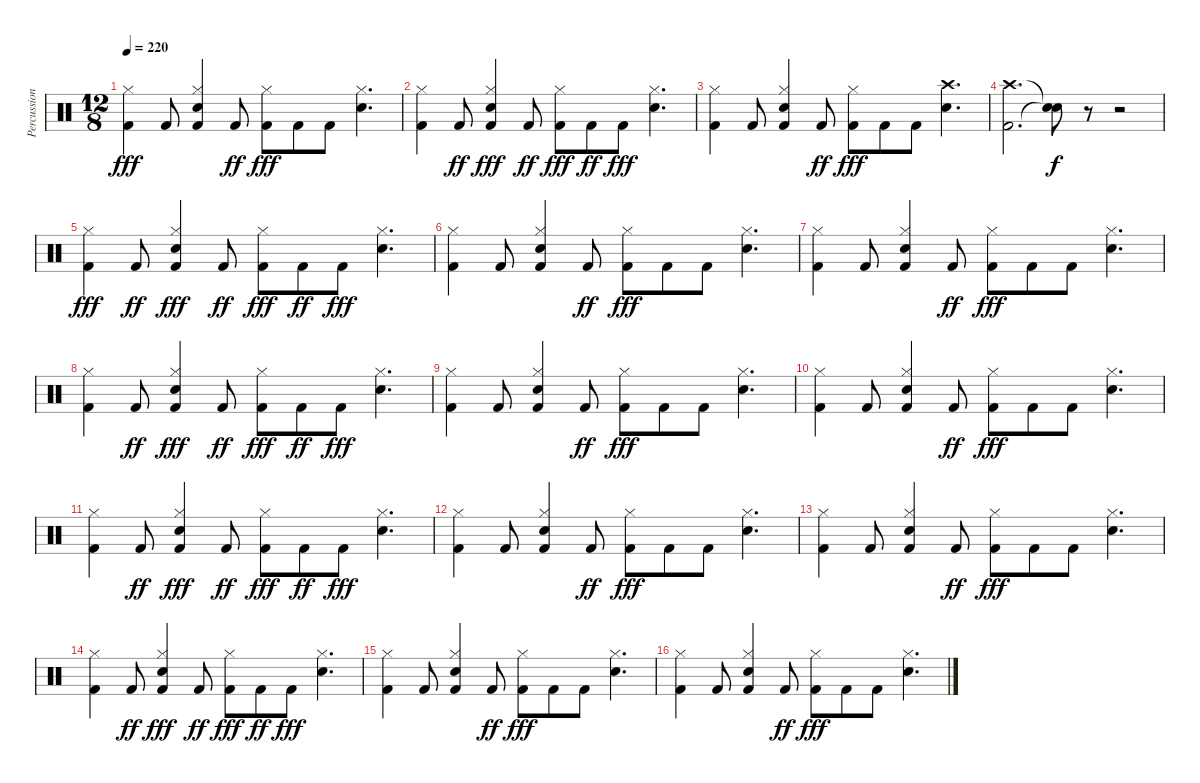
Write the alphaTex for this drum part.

\track ("Percussion" "Percussion") {instrument percussion}
\staff {score}
\articulation defaults
\ts (12 8)
\tempo 220
\clef neutral
\ks c
("Kick (hit) 2" "Hi-Hat (closed)").4{dy fff} "Kick (hit) 2".8 ("Kick (hit) 2" "Snare (hit) 2" "Hi-Hat (closed)").4 "Kick (hit) 2".8{dy ff} ("Kick (hit) 2" "Hi-Hat (closed)").8{dy fff} "Kick (hit) 2".8 "Kick (hit) 2".8 ("Snare (hit) 2" "Hi-Hat (closed)").4{d} |
("Kick (hit) 2" "Hi-Hat (closed)").4 "Kick (hit) 2".8{dy ff} ("Kick (hit) 2" "Snare (hit) 2" "Hi-Hat (closed)").4{dy fff} "Kick (hit) 2".8{dy ff} ("Kick (hit) 2" "Hi-Hat (closed)").8{dy fff} "Kick (hit) 2".8{dy ff} "Kick (hit) 2".8{dy fff} ("Snare (hit) 2" "Hi-Hat (closed)").4{d} |
("Kick (hit) 2" "Hi-Hat (closed)").4 "Kick (hit) 2".8 ("Kick (hit) 2" "Snare (hit) 2" "Hi-Hat (closed)").4 "Kick (hit) 2".8{dy ff} ("Kick (hit) 2" "Hi-Hat (closed)").8{dy fff} "Kick (hit) 2".8 "Kick (hit) 2".8 ("Snare (hit) 2" "Crash high (hit)").4{d} |
("Kick (hit) 2" "Crash high (hit)").2{d} ("Snare (hit)"{t} "Snare (hit)"{t}).8{dy f} r.8 r.2 |
("Kick (hit) 2" "Hi-Hat (closed)").4{dy fff} "Kick (hit) 2".8{dy ff} ("Kick (hit) 2" "Snare (hit) 2" "Hi-Hat (closed)").4{dy fff} "Kick (hit) 2".8{dy ff} ("Kick (hit) 2" "Hi-Hat (closed)").8{dy fff} "Kick (hit) 2".8{dy ff} "Kick (hit) 2".8{dy fff} ("Snare (hit) 2" "Hi-Hat (closed)").4{d} |
("Kick (hit) 2" "Hi-Hat (closed)").4 "Kick (hit) 2".8 ("Kick (hit) 2" "Snare (hit) 2" "Hi-Hat (closed)").4 "Kick (hit) 2".8{dy ff} ("Kick (hit) 2" "Hi-Hat (closed)").8{dy fff} "Kick (hit) 2".8 "Kick (hit) 2".8 ("Snare (hit) 2" "Hi-Hat (closed)").4{d} |
("Kick (hit) 2" "Hi-Hat (closed)").4 "Kick (hit) 2".8 ("Kick (hit) 2" "Snare (hit) 2" "Hi-Hat (closed)").4 "Kick (hit) 2".8{dy ff} ("Kick (hit) 2" "Hi-Hat (closed)").8{dy fff} "Kick (hit) 2".8 "Kick (hit) 2".8 ("Snare (hit) 2" "Hi-Hat (closed)").4{d} |
("Kick (hit) 2" "Hi-Hat (closed)").4 "Kick (hit) 2".8{dy ff} ("Kick (hit) 2" "Snare (hit) 2" "Hi-Hat (closed)").4{dy fff} "Kick (hit) 2".8{dy ff} ("Kick (hit) 2" "Hi-Hat (closed)").8{dy fff} "Kick (hit) 2".8{dy ff} "Kick (hit) 2".8{dy fff} ("Snare (hit) 2" "Hi-Hat (closed)").4{d} |
("Kick (hit) 2" "Hi-Hat (closed)").4 "Kick (hit) 2".8 ("Kick (hit) 2" "Snare (hit) 2" "Hi-Hat (closed)").4 "Kick (hit) 2".8{dy ff} ("Kick (hit) 2" "Hi-Hat (closed)").8{dy fff} "Kick (hit) 2".8 "Kick (hit) 2".8 ("Snare (hit) 2" "Hi-Hat (closed)").4{d} |
("Kick (hit) 2" "Hi-Hat (closed)").4 "Kick (hit) 2".8 ("Kick (hit) 2" "Snare (hit) 2" "Hi-Hat (closed)").4 "Kick (hit) 2".8{dy ff} ("Kick (hit) 2" "Hi-Hat (closed)").8{dy fff} "Kick (hit) 2".8 "Kick (hit) 2".8 ("Snare (hit) 2" "Hi-Hat (closed)").4{d} |
("Kick (hit) 2" "Hi-Hat (closed)").4 "Kick (hit) 2".8{dy ff} ("Kick (hit) 2" "Snare (hit) 2" "Hi-Hat (closed)").4{dy fff} "Kick (hit) 2".8{dy ff} ("Kick (hit) 2" "Hi-Hat (closed)").8{dy fff} "Kick (hit) 2".8{dy ff} "Kick (hit) 2".8{dy fff} ("Snare (hit) 2" "Hi-Hat (closed)").4{d} |
("Kick (hit) 2" "Hi-Hat (closed)").4 "Kick (hit) 2".8 ("Kick (hit) 2" "Snare (hit) 2" "Hi-Hat (closed)").4 "Kick (hit) 2".8{dy ff} ("Kick (hit) 2" "Hi-Hat (closed)").8{dy fff} "Kick (hit) 2".8 "Kick (hit) 2".8 ("Snare (hit) 2" "Hi-Hat (closed)").4{d} |
("Kick (hit) 2" "Hi-Hat (closed)").4 "Kick (hit) 2".8 ("Kick (hit) 2" "Snare (hit) 2" "Hi-Hat (closed)").4 "Kick (hit) 2".8{dy ff} ("Kick (hit) 2" "Hi-Hat (closed)").8{dy fff} "Kick (hit) 2".8 "Kick (hit) 2".8 ("Snare (hit) 2" "Hi-Hat (closed)").4{d} |
("Kick (hit) 2" "Hi-Hat (closed)").4 "Kick (hit) 2".8{dy ff} ("Kick (hit) 2" "Snare (hit) 2" "Hi-Hat (closed)").4{dy fff} "Kick (hit) 2".8{dy ff} ("Kick (hit) 2" "Hi-Hat (closed)").8{dy fff} "Kick (hit) 2".8{dy ff} "Kick (hit) 2".8{dy fff} ("Snare (hit) 2" "Hi-Hat (closed)").4{d} |
("Kick (hit) 2" "Hi-Hat (closed)").4 "Kick (hit) 2".8 ("Kick (hit) 2" "Snare (hit) 2" "Hi-Hat (closed)").4 "Kick (hit) 2".8{dy ff} ("Kick (hit) 2" "Hi-Hat (closed)").8{dy fff} "Kick (hit) 2".8 "Kick (hit) 2".8 ("Snare (hit) 2" "Hi-Hat (closed)").4{d} |
("Kick (hit) 2" "Hi-Hat (closed)").4 "Kick (hit) 2".8 ("Kick (hit) 2" "Snare (hit) 2" "Hi-Hat (closed)").4 "Kick (hit) 2".8{dy ff} ("Kick (hit) 2" "Hi-Hat (closed)").8{dy fff} "Kick (hit) 2".8 "Kick (hit) 2".8 ("Snare (hit) 2" "Hi-Hat (closed)").4{d}
